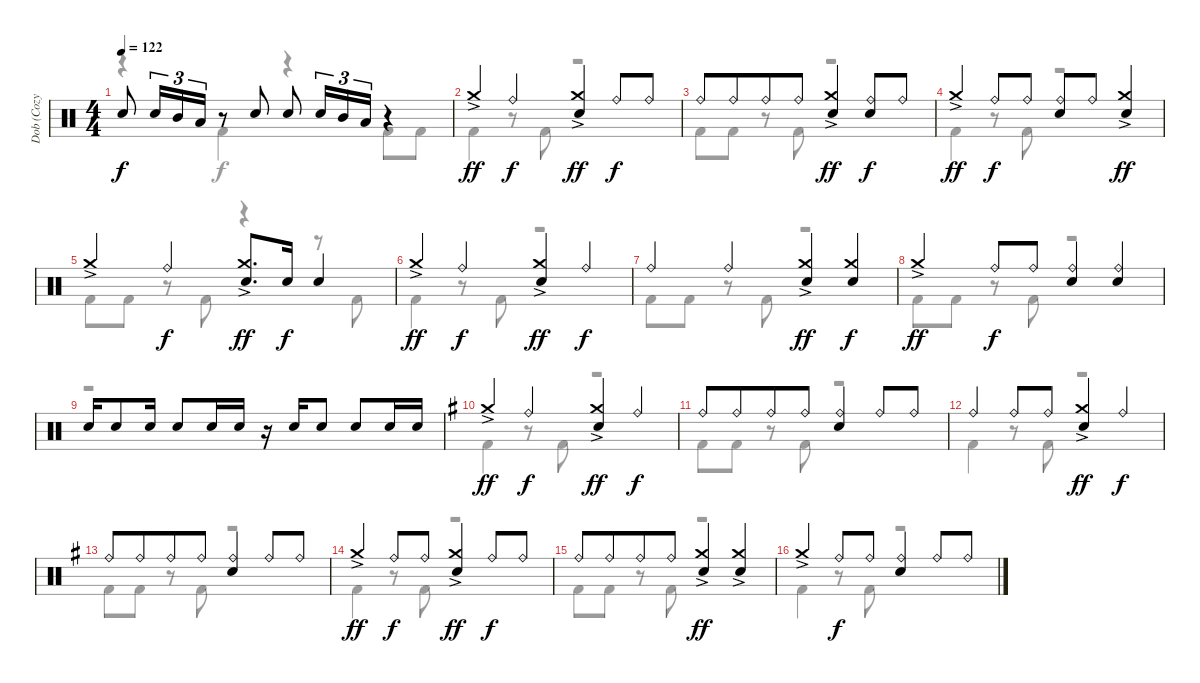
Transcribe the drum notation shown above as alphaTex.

\track ("Dob (Cozy Powell)" "Dob (Cozy ") {instrument percussion}
\staff {score}
\articulation defaults
\voice
\ts (4 4)
\tempo 122
\clef neutral
\ks c "Electric Snare (hit)".8{dy f} "Electric Snare (hit)".16{tu (3 2)} "Mid Tom (hit)".16{tu (3 2)} "Low Tom (hit)".16{tu (3 2)}
r.8 "Electric Snare (hit)".8 "Electric Snare (hit)".8 "Electric Snare (hit)".16{tu (3 2)} "Mid Tom (hit)".16{tu (3 2)} "Low Tom (hit)".16{tu (3 2)} r.4 |
"Crash medium (hit)"{ac}.4{dy ff} "Ride (bell)".4{dy f} ("Crash medium (hit)"{ac} "Electric Snare (hit)").4{dy ff} "Ride (bell)".8{dy f} "Ride (bell)".8 |
"Ride (bell)".8 "Ride (bell)".8{beam merge} "Ride (bell)".8 "Ride (bell)".8 ("Crash medium (hit)"{ac} "Electric Snare (hit)").4{dy ff} ("Ride (bell)" "Electric Snare (hit)").8{dy f} "Ride (bell)".8 |
"Crash medium (hit)"{ac}.4{dy ff} "Ride (bell)".8{dy f} "Ride (bell)".8 ("Ride (bell)" "Electric Snare (hit)").8 "Ride (bell)".8 ("Crash medium (hit)"{ac} "Electric Snare (hit)").4{dy ff} |
"Crash medium (hit)"{ac}.4 "Ride (bell)".4{dy f} ("Crash medium (hit)"{ac} "Electric Snare (hit)").8{d dy ff} "Electric Snare (hit)".16{dy f} "Electric Snare (hit)".4 |
"Crash medium (hit)"{ac}.4{dy ff} "Ride (bell)".4{dy f} ("Crash medium (hit)"{ac} "Electric Snare (hit)").4{dy ff} "Ride (bell)".4{dy f} |
"Ride (bell)".4 "Ride (bell)".4 ("Crash medium (hit)"{ac} "Electric Snare (hit)").4{dy ff} ("Crash medium (hit)" "Electric Snare (hit)").4{dy f} |
"Crash medium (hit)"{ac}.4{dy ff} "Ride (bell)".8{dy f} "Ride (bell)".8 ("Ride (bell)" "Electric Snare (hit)").4 ("Ride (bell)" "Electric Snare (hit)").4 |
"Electric Snare (hit)".16 "Electric Snare (hit)".8 "Electric Snare (hit)".16 "Electric Snare (hit)".8 "Electric Snare (hit)".16 "Electric Snare (hit)".16 r.16 "Electric Snare (hit)".16 "Electric Snare (hit)".8 "Electric Snare (hit)".8 "Electric Snare (hit)".16 "Electric Snare (hit)".16 |
\ks g "Crash medium (hit)"{ac}.4{dy ff} "Ride (bell)".4{dy f}
("Crash medium (hit)"{ac} "Electric Snare (hit)").4{dy ff} "Ride (bell)".4{dy f} |
"Ride (bell)".8 "Ride (bell)".8{beam merge} "Ride (bell)".8 "Ride (bell)".8 ("Ride (bell)" "Electric Snare (hit)").4 "Ride (bell)".8 "Ride (bell)".8 |
"Ride (bell)".4 "Ride (bell)".8 "Ride (bell)".8 ("Crash medium (hit)"{ac} "Electric Snare (hit)").4{dy ff} "Ride (bell)".4{dy f} |
"Ride (bell)".8 "Ride (bell)".8{beam merge} "Ride (bell)".8 "Ride (bell)".8 ("Ride (bell)" "Electric Snare (hit)").4 "Ride (bell)".8 "Ride (bell)".8 |
"Crash medium (hit)"{ac}.4{dy ff} "Ride (bell)".8{dy f} "Ride (bell)".8 ("Crash medium (hit)"{ac} "Electric Snare (hit)").4{dy ff} "Ride (bell)".8{dy f} "Ride (bell)".8 |
"Ride (bell)".8 "Ride (bell)".8{beam merge} "Ride (bell)".8 "Ride (bell)".8 ("Crash medium (hit)"{ac} "Electric Snare (hit)").4{dy ff} ("Crash medium (hit)"{ac} "Electric Snare (hit)").4 |
"Crash medium (hit)"{ac}.4 "Ride (bell)".8{dy f} "Ride (bell)".8 ("Ride (bell)" "Electric Snare (hit)").4 "Ride (bell)".8 "Ride (bell)".8
\voice
\clef neutral
\ottava regular
\simile none
\ks c
r.4{dy f} "Kick (hit) 2".4 r.4 "Kick (hit) 2".8 "Kick (hit) 2".8 |
"Kick (hit) 2".4 r.8 "Kick (hit) 2".8 r.2 |
"Kick (hit) 2".8 "Kick (hit) 2".8 r.8 "Kick (hit) 2".8 r.2 |
"Kick (hit) 2".4 r.8 "Kick (hit) 2".8 r.2 |
"Kick (hit) 2".8 "Kick (hit) 2".8 r.8 "Kick (hit) 2".8 r.4 r.8 "Kick (hit) 2".8 |
"Kick (hit) 2".4 r.8 "Kick (hit) 2".8 r.2 |
"Kick (hit) 2".8 "Kick (hit) 2".8 r.8 "Kick (hit) 2".8 r.2 |
"Kick (hit) 2".8 "Kick (hit) 2".8 r.8 "Kick (hit) 2".8 r.2 |
r.1 |
\ks g "Kick (hit) 2".4
r.8 "Kick (hit) 2".8 r.2 |
"Kick (hit) 2".8 "Kick (hit) 2".8 r.8 "Kick (hit) 2".8 r.2 |
"Kick (hit) 2".4 r.8 "Kick (hit) 2".8 r.2 |
"Kick (hit) 2".8 "Kick (hit) 2".8 r.8 "Kick (hit) 2".8 r.2 |
"Kick (hit) 2".4 r.8 "Kick (hit) 2".8 r.2 |
"Kick (hit) 2".8 "Kick (hit) 2".8 r.8 "Kick (hit) 2".8 r.2 |
"Kick (hit) 2".4 r.8 "Kick (hit) 2".8 r.2
